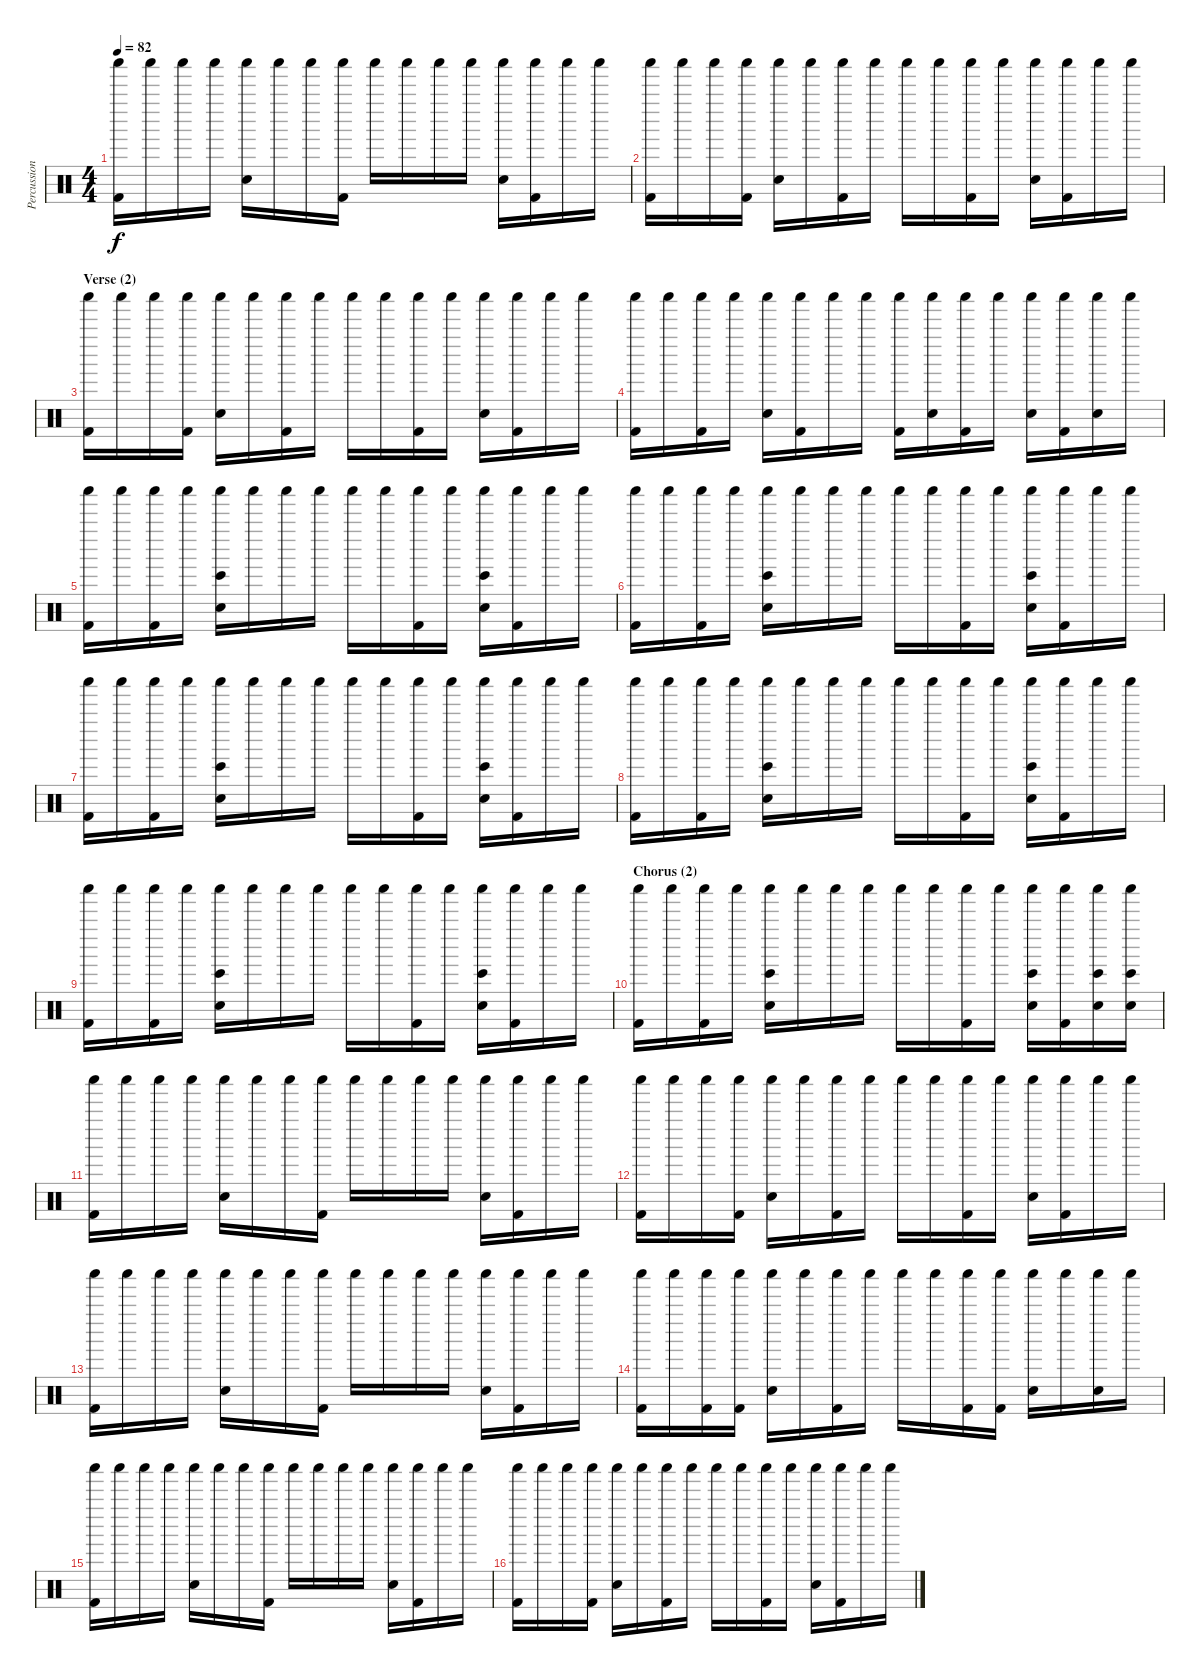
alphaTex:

\track ("Percussion" "Percussion") {instrument percussion}
\staff {score}
\articulation defaults
\ts (4 4)
\tempo 82
\clef neutral
\ks c
("Shaker (hit)" "Kick (hit) 2").16{dy f} "Shaker (hit)".16 "Shaker (hit)".16 "Shaker (hit)".16 ("Shaker (hit)" "Snare (hit) 2").16 "Shaker (hit)".16 "Shaker (hit)".16 ("Shaker (hit)" "Kick (hit) 2").16 "Shaker (hit)".16 "Shaker (hit)".16 "Shaker (hit)".16 "Shaker (hit)".16 ("Shaker (hit)" "Snare (hit) 2").16 ("Shaker (hit)" "Kick (hit) 2").16 "Shaker (hit)".16 "Shaker (hit)".16 |
("Shaker (hit)" "Kick (hit) 2").16 "Shaker (hit)".16 "Shaker (hit)".16 ("Shaker (hit)" "Kick (hit) 2").16 ("Shaker (hit)" "Snare (hit) 2").16 "Shaker (hit)".16 ("Shaker (hit)" "Kick (hit) 2").16 "Shaker (hit)".16 "Shaker (hit)".16 "Shaker (hit)".16 ("Shaker (hit)" "Kick (hit) 2").16 "Shaker (hit)".16 ("Shaker (hit)" "Snare (hit) 2").16 ("Shaker (hit)" "Kick (hit) 2").16 "Shaker (hit)".16 "Shaker (hit)".16 |
\section ("" "Verse (2)")
("Shaker (hit)" "Kick (hit) 2").16 "Shaker (hit)".16 "Shaker (hit)".16 ("Shaker (hit)" "Kick (hit) 2").16 ("Shaker (hit)" "Snare (hit) 2").16 "Shaker (hit)".16 ("Shaker (hit)" "Kick (hit) 2").16 "Shaker (hit)".16 "Shaker (hit)".16 "Shaker (hit)".16 ("Shaker (hit)" "Kick (hit) 2").16 "Shaker (hit)".16 ("Shaker (hit)" "Snare (hit) 2").16 ("Shaker (hit)" "Kick (hit) 2").16 "Shaker (hit)".16 "Shaker (hit)".16 |
("Shaker (hit)" "Kick (hit) 2").16 "Shaker (hit)".16 ("Shaker (hit)" "Kick (hit) 2").16 "Shaker (hit)".16 ("Shaker (hit)" "Snare (hit) 2").16 ("Shaker (hit)" "Kick (hit) 2").16 "Shaker (hit)".16 "Shaker (hit)".16 ("Shaker (hit)" "Kick (hit) 2").16 ("Shaker (hit)" "Snare (hit) 2").16 ("Shaker (hit)" "Kick (hit) 2").16 "Shaker (hit)".16 ("Shaker (hit)" "Snare (hit) 2").16 ("Shaker (hit)" "Kick (hit) 2").16 ("Shaker (hit)" "Snare (hit) 2").16 "Shaker (hit)".16 |
("Shaker (hit)" "Kick (hit) 2").16 "Shaker (hit)".16 ("Shaker (hit)" "Kick (hit) 2").16 "Shaker (hit)".16 ("Shaker (hit)" "Bongo High (hit)" "Hand Clap (hit)").16 "Shaker (hit)".16 "Shaker (hit)".16 "Shaker (hit)".16 "Shaker (hit)".16 "Shaker (hit)".16 ("Shaker (hit)" "Kick (hit) 2").16 "Shaker (hit)".16 ("Shaker (hit)" "Bongo High (hit)" "Hand Clap (hit)").16 ("Shaker (hit)" "Kick (hit) 2").16 "Shaker (hit)".16 "Shaker (hit)".16 |
("Shaker (hit)" "Kick (hit) 2").16 "Shaker (hit)".16 ("Shaker (hit)" "Kick (hit) 2").16 "Shaker (hit)".16 ("Shaker (hit)" "Bongo High (hit)" "Hand Clap (hit)").16 "Shaker (hit)".16 "Shaker (hit)".16 "Shaker (hit)".16 "Shaker (hit)".16 "Shaker (hit)".16 ("Shaker (hit)" "Kick (hit) 2").16 "Shaker (hit)".16 ("Shaker (hit)" "Bongo High (hit)" "Hand Clap (hit)").16 ("Shaker (hit)" "Kick (hit) 2").16 "Shaker (hit)".16 "Shaker (hit)".16 |
("Shaker (hit)" "Kick (hit) 2").16 "Shaker (hit)".16 ("Shaker (hit)" "Kick (hit) 2").16 "Shaker (hit)".16 ("Shaker (hit)" "Bongo High (hit)" "Hand Clap (hit)").16 "Shaker (hit)".16 "Shaker (hit)".16 "Shaker (hit)".16 "Shaker (hit)".16 "Shaker (hit)".16 ("Shaker (hit)" "Kick (hit) 2").16 "Shaker (hit)".16 ("Shaker (hit)" "Bongo High (hit)" "Hand Clap (hit)").16 ("Shaker (hit)" "Kick (hit) 2").16 "Shaker (hit)".16 "Shaker (hit)".16 |
("Shaker (hit)" "Kick (hit) 2").16 "Shaker (hit)".16 ("Shaker (hit)" "Kick (hit) 2").16 "Shaker (hit)".16 ("Shaker (hit)" "Bongo High (hit)" "Hand Clap (hit)").16 "Shaker (hit)".16 "Shaker (hit)".16 "Shaker (hit)".16 "Shaker (hit)".16 "Shaker (hit)".16 ("Shaker (hit)" "Kick (hit) 2").16 "Shaker (hit)".16 ("Shaker (hit)" "Bongo High (hit)" "Hand Clap (hit)").16 ("Shaker (hit)" "Kick (hit) 2").16 "Shaker (hit)".16 "Shaker (hit)".16 |
("Shaker (hit)" "Kick (hit) 2").16 "Shaker (hit)".16 ("Shaker (hit)" "Kick (hit) 2").16 "Shaker (hit)".16 ("Shaker (hit)" "Bongo High (hit)" "Hand Clap (hit)").16 "Shaker (hit)".16 "Shaker (hit)".16 "Shaker (hit)".16 "Shaker (hit)".16 "Shaker (hit)".16 ("Shaker (hit)" "Kick (hit) 2").16 "Shaker (hit)".16 ("Shaker (hit)" "Bongo High (hit)" "Hand Clap (hit)").16 ("Shaker (hit)" "Kick (hit) 2").16 "Shaker (hit)".16 "Shaker (hit)".16 |
\section ("" "Chorus (2)")
("Shaker (hit)" "Kick (hit) 2").16 "Shaker (hit)".16 ("Shaker (hit)" "Kick (hit) 2").16 "Shaker (hit)".16 ("Shaker (hit)" "Bongo High (hit)" "Hand Clap (hit)").16 "Shaker (hit)".16 "Shaker (hit)".16 "Shaker (hit)".16 "Shaker (hit)".16 "Shaker (hit)".16 ("Shaker (hit)" "Kick (hit) 2").16 "Shaker (hit)".16 ("Shaker (hit)" "Bongo High (hit)" "Hand Clap (hit)").16 ("Shaker (hit)" "Kick (hit) 2").16 ("Shaker (hit)" "Bongo High (hit)" "Hand Clap (hit)").16 ("Shaker (hit)" "Bongo High (hit)" "Hand Clap (hit)").16 |
("Shaker (hit)" "Kick (hit) 2").16 "Shaker (hit)".16 "Shaker (hit)".16 "Shaker (hit)".16 ("Shaker (hit)" "Snare (hit) 2").16 "Shaker (hit)".16 "Shaker (hit)".16 ("Shaker (hit)" "Kick (hit) 2").16 "Shaker (hit)".16 "Shaker (hit)".16 "Shaker (hit)".16 "Shaker (hit)".16 ("Shaker (hit)" "Snare (hit) 2").16 ("Shaker (hit)" "Kick (hit) 2").16 "Shaker (hit)".16 "Shaker (hit)".16 |
("Shaker (hit)" "Kick (hit) 2").16 "Shaker (hit)".16 "Shaker (hit)".16 ("Shaker (hit)" "Kick (hit) 2").16 ("Shaker (hit)" "Snare (hit) 2").16 "Shaker (hit)".16 ("Shaker (hit)" "Kick (hit) 2").16 "Shaker (hit)".16 "Shaker (hit)".16 "Shaker (hit)".16 ("Shaker (hit)" "Kick (hit) 2").16 "Shaker (hit)".16 ("Shaker (hit)" "Snare (hit) 2").16 ("Shaker (hit)" "Kick (hit) 2").16 "Shaker (hit)".16 "Shaker (hit)".16 |
("Shaker (hit)" "Kick (hit) 2").16 "Shaker (hit)".16 "Shaker (hit)".16 "Shaker (hit)".16 ("Shaker (hit)" "Snare (hit) 2").16 "Shaker (hit)".16 "Shaker (hit)".16 ("Shaker (hit)" "Kick (hit) 2").16 "Shaker (hit)".16 "Shaker (hit)".16 "Shaker (hit)".16 "Shaker (hit)".16 ("Shaker (hit)" "Snare (hit) 2").16 ("Shaker (hit)" "Kick (hit) 2").16 "Shaker (hit)".16 "Shaker (hit)".16 |
("Shaker (hit)" "Kick (hit) 2").16 "Shaker (hit)".16 ("Shaker (hit)" "Kick (hit) 2").16 ("Shaker (hit)" "Kick (hit) 2").16 ("Shaker (hit)" "Snare (hit) 2").16 "Shaker (hit)".16 ("Shaker (hit)" "Kick (hit) 2").16 "Shaker (hit)".16 "Shaker (hit)".16 "Shaker (hit)".16 ("Shaker (hit)" "Kick (hit) 2").16 ("Shaker (hit)" "Kick (hit) 2").16 ("Shaker (hit)" "Snare (hit) 2").16 "Shaker (hit)".16 ("Shaker (hit)" "Snare (hit) 2").16 "Shaker (hit)".16 |
("Shaker (hit)" "Kick (hit) 2").16 "Shaker (hit)".16 "Shaker (hit)".16 "Shaker (hit)".16 ("Shaker (hit)" "Snare (hit) 2").16 "Shaker (hit)".16 "Shaker (hit)".16 ("Shaker (hit)" "Kick (hit) 2").16 "Shaker (hit)".16 "Shaker (hit)".16 "Shaker (hit)".16 "Shaker (hit)".16 ("Shaker (hit)" "Snare (hit) 2").16 ("Shaker (hit)" "Kick (hit) 2").16 "Shaker (hit)".16 "Shaker (hit)".16 |
("Shaker (hit)" "Kick (hit) 2").16 "Shaker (hit)".16 "Shaker (hit)".16 ("Shaker (hit)" "Kick (hit) 2").16 ("Shaker (hit)" "Snare (hit) 2").16 "Shaker (hit)".16 ("Shaker (hit)" "Kick (hit) 2").16 "Shaker (hit)".16 "Shaker (hit)".16 "Shaker (hit)".16 ("Shaker (hit)" "Kick (hit) 2").16 "Shaker (hit)".16 ("Shaker (hit)" "Snare (hit) 2").16 ("Shaker (hit)" "Kick (hit) 2").16 "Shaker (hit)".16 "Shaker (hit)".16
